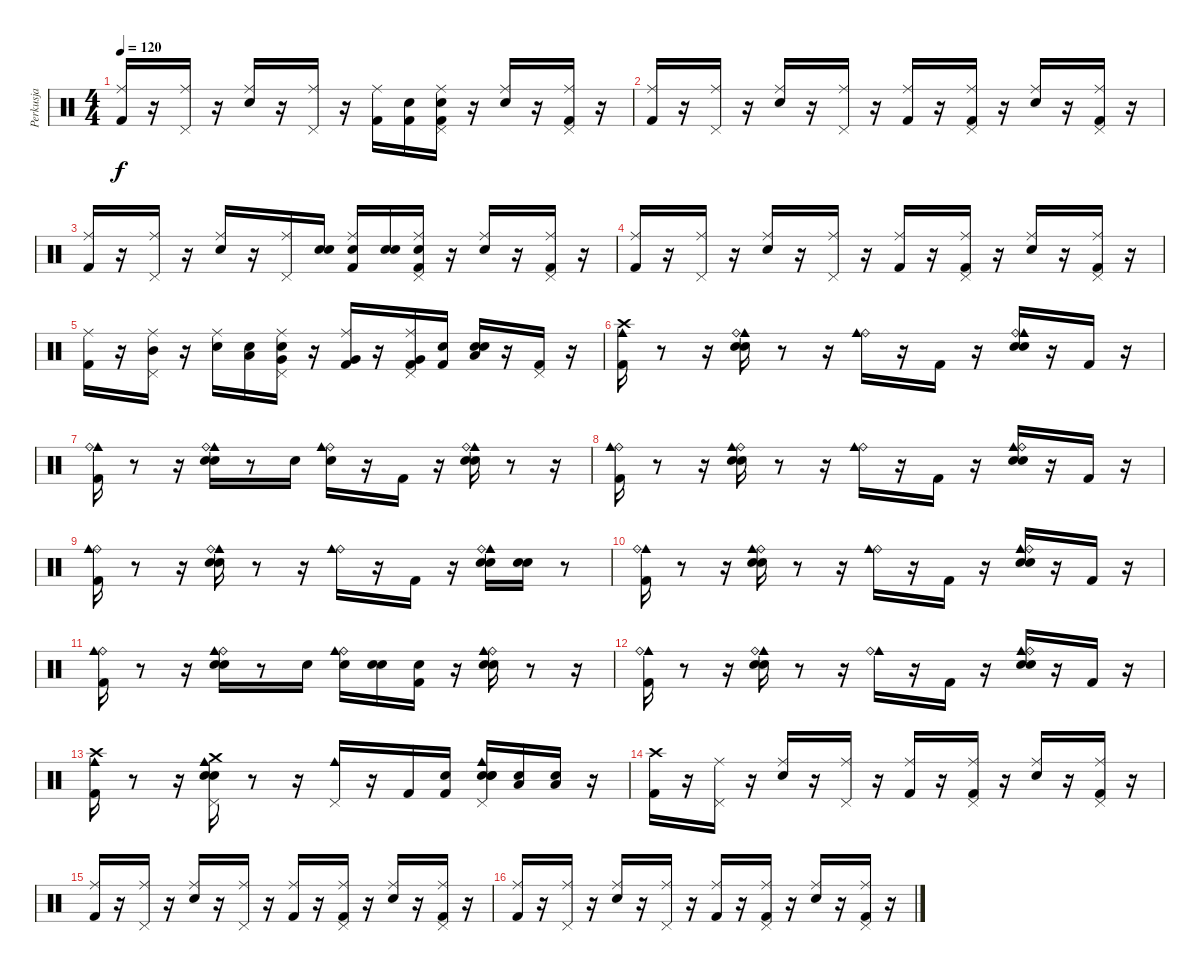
\track ("Perkusja" "Perkusja") {instrument percussion}
\staff {score}
\articulation defaults
\ts (4 4)
\tempo 120
\clef neutral
\ks c
("Kick (hit) 2" "Ride (middle)").16{dy f} r.16 ("Ride (middle)" "Pedal Hi-Hat (hit)").16 r.16 ("Ride (middle)" "Snare (hit) 2").16 r.16 ("Ride (middle)" "Pedal Hi-Hat (hit)").16 r.16 ("Ride (middle)" "Kick (hit) 2").16 ("Snare (hit)" "Kick (hit) 2").16 ("Snare (hit)" "Pedal Hi-Hat (hit)" "Ride (middle)" "Kick (hit) 2").16 r.16 ("Snare (hit) 2" "Ride (middle)").16 r.16 ("Pedal Hi-Hat (hit)" "Ride (middle)" "Kick (hit) 2").16 r.16 |
("Kick (hit) 2" "Ride (middle)").16 r.16 ("Ride (middle)" "Pedal Hi-Hat (hit)").16 r.16 ("Snare (hit) 2" "Ride (middle)").16 r.16 ("Ride (middle)" "Pedal Hi-Hat (hit)").16 r.16 ("Kick (hit) 2" "Ride (middle)").16 r.16 ("Kick (hit) 2" "Pedal Hi-Hat (hit)" "Ride (middle)").16 r.16 ("Snare (hit) 2" "Ride (middle)").16 r.16 ("Pedal Hi-Hat (hit)" "Ride (middle)" "Kick (hit) 2").16 r.16 |
("Ride (middle)" "Kick (hit) 2").16 r.16 ("Ride (middle)" "Pedal Hi-Hat (hit)").16 r.16 ("Snare (hit) 2" "Ride (middle)").16 r.16 ("Pedal Hi-Hat (hit)" "Ride (middle)").16 ("Snare (hit)" "Snare (hit) 2").16 ("Snare (hit)" "Ride (middle)" "Kick (hit) 2").16 ("Snare (hit)" "Snare (hit) 2").16 ("Snare (hit)" "Pedal Hi-Hat (hit)" "Kick (hit) 2" "Ride (middle)").16 r.16 ("Snare (hit) 2" "Ride (middle)").16 r.16 ("Kick (hit) 2" "Pedal Hi-Hat (hit)" "Ride (middle)").16 r.16 |
("Ride (middle)" "Kick (hit) 2").16 r.16 ("Ride (middle)" "Pedal Hi-Hat (hit)").16 r.16 ("Snare (hit) 2" "Ride (middle)").16 r.16 ("Pedal Hi-Hat (hit)" "Ride (middle)").16 r.16 ("Ride (middle)" "Kick (hit) 2").16 r.16 ("Pedal Hi-Hat (hit)" "Kick (hit) 2" "Ride (middle)").16 r.16 ("Snare (hit) 2" "Ride (middle)").16 r.16 ("Pedal Hi-Hat (hit)" "Kick (hit) 2" "Ride (middle)").16 r.16 |
("Ride (middle)" "Kick (hit) 2").16 r.16 ("Pedal Hi-Hat (hit)" "Ride (middle)" "Mid Tom (hit)").16 r.16 ("Ride (middle)" "Snare (hit) 2").16 ("Snare (hit)" "Low Tom (hit)").16 ("Snare (hit)" "Pedal Hi-Hat (hit)" "Ride (middle)" "Very Low Tom (hit)").16 r.16 ("Ride (middle)" "Very Low Tom (hit)" "Kick (hit) 2").16 r.16 ("Ride (middle)" "Pedal Hi-Hat (hit)" "Kick (hit) 2" "Very Low Tom (hit)").16 ("Snare (hit)" "Kick (hit) 2").16 ("Snare (hit)" "Low Floor Tom (hit)" "Snare (hit) 2").16 r.16 ("Pedal Hi-Hat (hit)" "Kick (hit) 2").16 r.16 |
("Crash high (hit)" "Kick (hit) 2" "Cowbell medium (hit)").16 r.8 r.16 ("Snare (hit) 2" "Cowbell medium (hit)" "Ride (bell)" "Hand Clap (hit)").16 r.8 r.16 ("Ride (bell)" "Cowbell medium (hit)").16 r.16 "Kick (hit) 2".16 r.16 ("Snare (hit) 2" "Ride (bell)" "Cowbell medium (hit)" "Hand Clap (hit)").16 r.16 "Kick (hit) 2".16 r.16 |
("Kick (hit) 2" "Cowbell medium (hit)" "Ride (bell)").16 r.8 r.16 ("Hand Clap (hit)" "Snare (hit) 2" "Cowbell medium (hit)" "Ride (bell)").16 r.8 "Snare (hit) 2".16 ("Snare (hit)" "Ride (bell)" "Cowbell medium (hit)").16 r.16 "Kick (hit) 2".16 r.16 ("Cowbell medium (hit)" "Hand Clap (hit)" "Snare (hit) 2" "Ride (bell)").16 r.8 r.16 |
("Ride (bell)" "Cowbell medium (hit)" "Kick (hit) 2").16 r.8 r.16 ("Ride (bell)" "Hand Clap (hit)" "Snare (hit) 2" "Cowbell medium (hit)").16 r.8 r.16 ("Ride (bell)" "Cowbell medium (hit)").16 r.16 "Kick (hit) 2".16 r.16 ("Hand Clap (hit)" "Cowbell medium (hit)" "Snare (hit) 2" "Ride (bell)").16 r.16 "Kick (hit) 2".16 r.16 |
("Ride (bell)" "Cowbell medium (hit)" "Kick (hit) 2").16 r.8 r.16 ("Cowbell medium (hit)" "Snare (hit) 2" "Hand Clap (hit)" "Ride (bell)").16 r.8 r.16 ("Ride (bell)" "Cowbell medium (hit)").16 r.16 "Kick (hit) 2".16 r.16 ("Cowbell medium (hit)" "Snare (hit) 2" "Ride (bell)" "Hand Clap (hit)").16 ("Snare (hit)" "Snare (hit) 2").16 r.8 |
("Cowbell medium (hit)" "Ride (bell)" "Kick (hit) 2").16 r.8 r.16 ("Snare (hit) 2" "Ride (bell)" "Cowbell medium (hit)" "Hand Clap (hit)").16 r.8 r.16 ("Ride (bell)" "Cowbell medium (hit)").16 r.16 "Kick (hit) 2".16 r.16 ("Snare (hit) 2" "Cowbell medium (hit)" "Hand Clap (hit)" "Ride (bell)").16 r.16 "Kick (hit) 2".16 r.16 |
("Ride (bell)" "Cowbell medium (hit)" "Kick (hit) 2").16 r.8 r.16 ("Snare (hit) 2" "Ride (bell)" "Hand Clap (hit)" "Cowbell medium (hit)").16 r.8 "Snare (hit) 2".16 ("Snare (hit)" "Ride (bell)" "Cowbell medium (hit)").16 ("Snare (hit)" "Snare (hit) 2").16 ("Snare (hit)" "Kick (hit) 2").16 r.16 ("Hand Clap (hit)" "Ride (bell)" "Cowbell medium (hit)" "Snare (hit) 2").16 r.8 r.16 |
("Cowbell medium (hit)" "Ride (bell)" "Kick (hit) 2").16 r.8 r.16 ("Hand Clap (hit)" "Cowbell medium (hit)" "Snare (hit) 2" "Ride (bell)").16 r.8 r.16 ("Cowbell medium (hit)" "Ride (bell)").16 r.16 "Kick (hit) 2".16 r.16 ("Hand Clap (hit)" "Cowbell medium (hit)" "Ride (bell)" "Snare (hit) 2").16 r.16 "Kick (hit) 2".16 r.16 |
("Crash high (hit)" "Kick (hit) 2" "Cowbell medium (hit)").16 r.8 r.16 ("Cowbell medium (hit)" "Hand Clap (hit)" "Pedal Hi-Hat (hit)" "Crash medium (hit)" "Snare (hit) 2").16 r.8 r.16 ("Pedal Hi-Hat (hit)" "Cowbell medium (hit)").16 r.16 "Kick (hit) 2".16 ("Snare (hit)" "Kick (hit) 2").16 ("Snare (hit)" "Pedal Hi-Hat (hit)" "Snare (hit) 2" "Cowbell medium (hit)" "Hand Clap (hit)").16 ("Snare (hit)" "Low Tom (hit)").16 ("Snare (hit)" "Low Floor Tom (hit)").16 r.16 |
("Kick (hit) 2" "Crash high (hit)").16 r.16 ("Ride (middle)" "Pedal Hi-Hat (hit)").16 r.16 ("Ride (middle)" "Snare (hit) 2").16 r.16 ("Pedal Hi-Hat (hit)" "Ride (middle)").16 r.16 ("Kick (hit) 2" "Ride (middle)").16 r.16 ("Kick (hit) 2" "Pedal Hi-Hat (hit)" "Ride (middle)").16 r.16 ("Ride (middle)" "Snare (hit) 2").16 r.16 ("Pedal Hi-Hat (hit)" "Ride (middle)" "Kick (hit) 2").16 r.16 |
("Kick (hit) 2" "Ride (middle)").16 r.16 ("Ride (middle)" "Pedal Hi-Hat (hit)").16 r.16 ("Ride (middle)" "Snare (hit) 2").16 r.16 ("Ride (middle)" "Pedal Hi-Hat (hit)").16 r.16 ("Ride (middle)" "Kick (hit) 2").16 r.16 ("Pedal Hi-Hat (hit)" "Kick (hit) 2" "Ride (middle)").16 r.16 ("Ride (middle)" "Snare (hit) 2").16 r.16 ("Ride (middle)" "Kick (hit) 2" "Pedal Hi-Hat (hit)").16 r.16 |
("Ride (middle)" "Kick (hit) 2").16 r.16 ("Ride (middle)" "Pedal Hi-Hat (hit)").16 r.16 ("Ride (middle)" "Snare (hit) 2").16 r.16 ("Ride (middle)" "Pedal Hi-Hat (hit)").16 r.16 ("Kick (hit) 2" "Ride (middle)").16 r.16 ("Kick (hit) 2" "Ride (middle)" "Pedal Hi-Hat (hit)").16 r.16 ("Ride (middle)" "Snare (hit) 2").16 r.16 ("Pedal Hi-Hat (hit)" "Kick (hit) 2" "Ride (middle)").16 r.16
